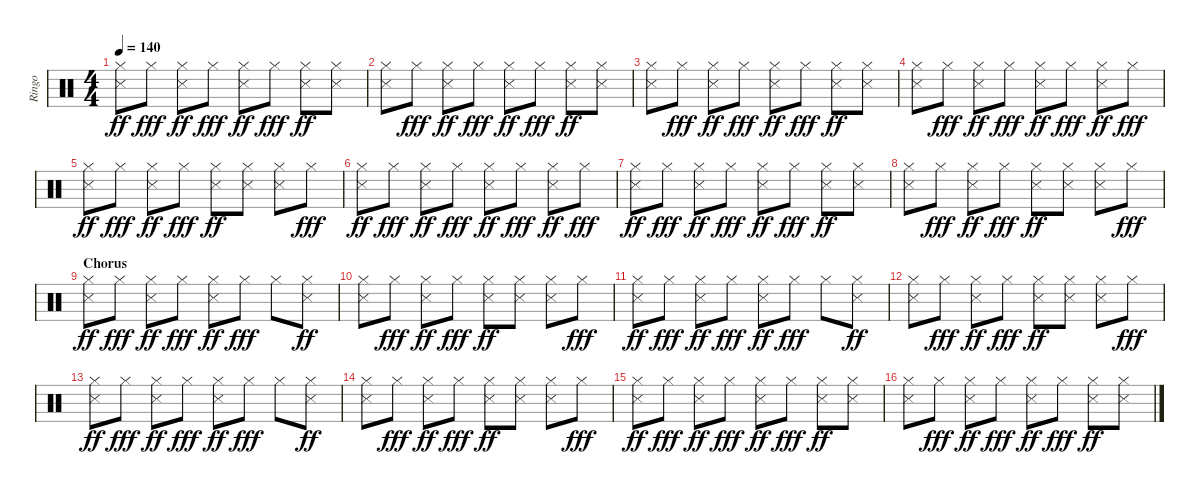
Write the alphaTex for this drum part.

\track ("Ringo" "Ringo") {instrument percussion}
\staff {score}
\articulation defaults
\ts (4 4)
\tempo 140
\clef neutral
\ks c
("Hi-Hat (closed)" "Snare (side stick) 3").8{dy ff} "Hi-Hat (closed)".8{dy fff} ("Hi-Hat (closed)" "Snare (side stick) 3").8{dy ff} "Hi-Hat (closed)".8{dy fff} ("Hi-Hat (closed)" "Snare (side stick) 3").8{dy ff} "Hi-Hat (closed)".8{dy fff} ("Hi-Hat (closed)" "Snare (side stick) 3").8{dy ff} ("Hi-Hat (closed)" "Snare (side stick) 3").8 |
("Hi-Hat (closed)" "Snare (side stick) 3").8 "Hi-Hat (closed)".8{dy fff} ("Hi-Hat (closed)" "Snare (side stick) 3").8{dy ff} "Hi-Hat (closed)".8{dy fff} ("Hi-Hat (closed)" "Snare (side stick) 3").8{dy ff} "Hi-Hat (closed)".8{dy fff} ("Hi-Hat (closed)" "Snare (side stick) 3").8{dy ff} ("Hi-Hat (closed)" "Snare (side stick) 3").8 |
("Hi-Hat (closed)" "Snare (side stick) 3").8 "Hi-Hat (closed)".8{dy fff} ("Hi-Hat (closed)" "Snare (side stick) 3").8{dy ff} "Hi-Hat (closed)".8{dy fff} ("Hi-Hat (closed)" "Snare (side stick) 3").8{dy ff} "Hi-Hat (closed)".8{dy fff} ("Hi-Hat (closed)" "Snare (side stick) 3").8{dy ff} ("Hi-Hat (closed)" "Snare (side stick) 3").8 |
("Hi-Hat (closed)" "Snare (side stick) 3").8 "Hi-Hat (closed)".8{dy fff} ("Hi-Hat (closed)" "Snare (side stick) 3").8{dy ff} "Hi-Hat (closed)".8{dy fff} ("Hi-Hat (closed)" "Snare (side stick) 3").8{dy ff} "Hi-Hat (closed)".8{dy fff} ("Hi-Hat (closed)" "Snare (side stick) 3").8{dy ff} "Hi-Hat (closed)".8{dy fff} |
("Hi-Hat (closed)" "Snare (side stick) 3").8{dy ff} "Hi-Hat (closed)".8{dy fff} ("Hi-Hat (closed)" "Snare (side stick) 3").8{dy ff} "Hi-Hat (closed)".8{dy fff} ("Hi-Hat (closed)" "Snare (side stick) 3").8{dy ff} ("Hi-Hat (closed)" "Snare (side stick) 3").8 ("Hi-Hat (closed)" "Snare (side stick) 3").8 "Hi-Hat (closed)".8{dy fff} |
("Hi-Hat (closed)" "Snare (side stick) 3").8{dy ff} "Hi-Hat (closed)".8{dy fff} ("Hi-Hat (closed)" "Snare (side stick) 3").8{dy ff} "Hi-Hat (closed)".8{dy fff} ("Hi-Hat (closed)" "Snare (side stick) 3").8{dy ff} "Hi-Hat (closed)".8{dy fff} ("Hi-Hat (closed)" "Snare (side stick) 3").8{dy ff} "Hi-Hat (closed)".8{dy fff} |
("Hi-Hat (closed)" "Snare (side stick) 3").8{dy ff} "Hi-Hat (closed)".8{dy fff} ("Hi-Hat (closed)" "Snare (side stick) 3").8{dy ff} "Hi-Hat (closed)".8{dy fff} ("Hi-Hat (closed)" "Snare (side stick) 3").8{dy ff} "Hi-Hat (closed)".8{dy fff} ("Hi-Hat (closed)" "Snare (side stick) 3").8{dy ff} ("Hi-Hat (closed)" "Snare (side stick) 3").8 |
("Hi-Hat (closed)" "Snare (side stick) 3").8 "Hi-Hat (closed)".8{dy fff} ("Hi-Hat (closed)" "Snare (side stick) 3").8{dy ff} "Hi-Hat (closed)".8{dy fff} ("Hi-Hat (closed)" "Snare (side stick) 3").8{dy ff} ("Hi-Hat (closed)" "Snare (side stick) 3").8 ("Hi-Hat (closed)" "Snare (side stick) 3").8 "Hi-Hat (closed)".8{dy fff} |
\section ("" "Chorus")
("Hi-Hat (closed)" "Snare (side stick) 3").8{dy ff} "Hi-Hat (closed)".8{dy fff} ("Hi-Hat (closed)" "Snare (side stick) 3").8{dy ff} "Hi-Hat (closed)".8{dy fff} ("Hi-Hat (closed)" "Snare (side stick) 3").8{dy ff} "Hi-Hat (closed)".8{dy fff} "Hi-Hat (closed)".8 ("Hi-Hat (closed)" "Snare (side stick) 3").8{dy ff} |
("Hi-Hat (closed)" "Snare (side stick) 3").8 "Hi-Hat (closed)".8{dy fff} ("Hi-Hat (closed)" "Snare (side stick) 3").8{dy ff} "Hi-Hat (closed)".8{dy fff} ("Hi-Hat (closed)" "Snare (side stick) 3").8{dy ff} ("Hi-Hat (closed)" "Snare (side stick) 3").8 ("Hi-Hat (closed)" "Snare (side stick) 3").8 "Hi-Hat (closed)".8{dy fff} |
("Hi-Hat (closed)" "Snare (side stick) 3").8{dy ff} "Hi-Hat (closed)".8{dy fff} ("Hi-Hat (closed)" "Snare (side stick) 3").8{dy ff} "Hi-Hat (closed)".8{dy fff} ("Hi-Hat (closed)" "Snare (side stick) 3").8{dy ff} "Hi-Hat (closed)".8{dy fff} "Hi-Hat (closed)".8 ("Hi-Hat (closed)" "Snare (side stick) 3").8{dy ff} |
("Hi-Hat (closed)" "Snare (side stick) 3").8 "Hi-Hat (closed)".8{dy fff} ("Hi-Hat (closed)" "Snare (side stick) 3").8{dy ff} "Hi-Hat (closed)".8{dy fff} ("Hi-Hat (closed)" "Snare (side stick) 3").8{dy ff} ("Hi-Hat (closed)" "Snare (side stick) 3").8 ("Hi-Hat (closed)" "Snare (side stick) 3").8 "Hi-Hat (closed)".8{dy fff} |
("Hi-Hat (closed)" "Snare (side stick) 3").8{dy ff} "Hi-Hat (closed)".8{dy fff} ("Hi-Hat (closed)" "Snare (side stick) 3").8{dy ff} "Hi-Hat (closed)".8{dy fff} ("Hi-Hat (closed)" "Snare (side stick) 3").8{dy ff} "Hi-Hat (closed)".8{dy fff} "Hi-Hat (closed)".8 ("Hi-Hat (closed)" "Snare (side stick) 3").8{dy ff} |
("Hi-Hat (closed)" "Snare (side stick) 3").8 "Hi-Hat (closed)".8{dy fff} ("Hi-Hat (closed)" "Snare (side stick) 3").8{dy ff} "Hi-Hat (closed)".8{dy fff} ("Hi-Hat (closed)" "Snare (side stick) 3").8{dy ff} ("Hi-Hat (closed)" "Snare (side stick) 3").8 ("Hi-Hat (closed)" "Snare (side stick) 3").8 "Hi-Hat (closed)".8{dy fff} |
("Hi-Hat (closed)" "Snare (side stick) 3").8{dy ff} "Hi-Hat (closed)".8{dy fff} ("Hi-Hat (closed)" "Snare (side stick) 3").8{dy ff} "Hi-Hat (closed)".8{dy fff} ("Hi-Hat (closed)" "Snare (side stick) 3").8{dy ff} "Hi-Hat (closed)".8{dy fff} ("Hi-Hat (closed)" "Snare (side stick) 3").8{dy ff} ("Hi-Hat (closed)" "Snare (side stick) 3").8 |
("Hi-Hat (closed)" "Snare (side stick) 3").8 "Hi-Hat (closed)".8{dy fff} ("Hi-Hat (closed)" "Snare (side stick) 3").8{dy ff} "Hi-Hat (closed)".8{dy fff} ("Hi-Hat (closed)" "Snare (side stick) 3").8{dy ff} "Hi-Hat (closed)".8{dy fff} ("Hi-Hat (closed)" "Snare (side stick) 3").8{dy ff} ("Hi-Hat (closed)" "Snare (side stick) 3").8
